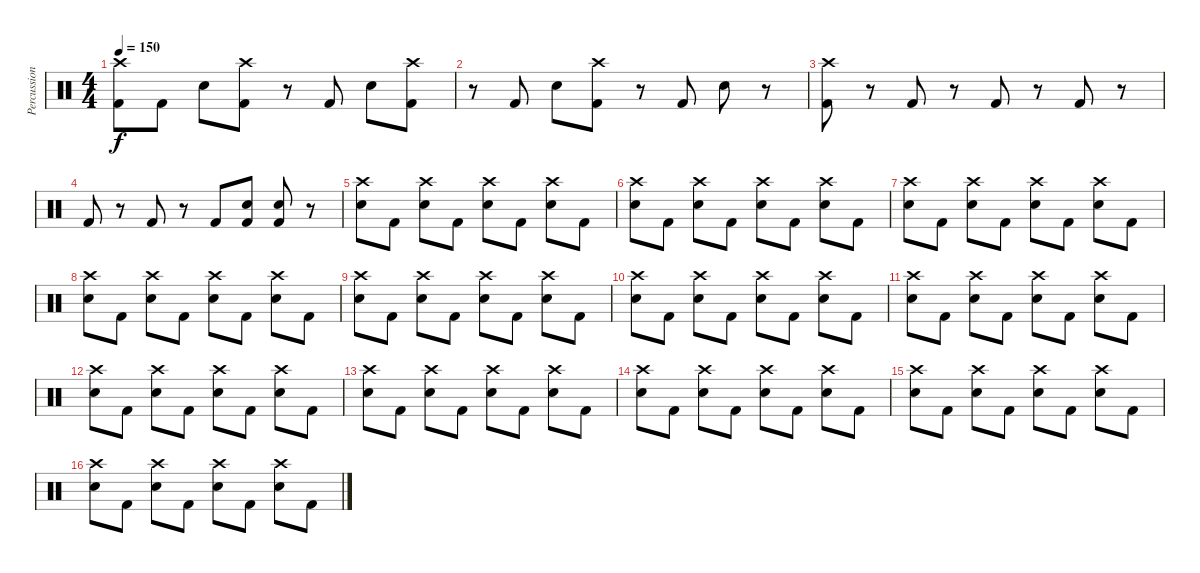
\track ("Percussion" "Percussion") {instrument percussion}
\staff {score}
\articulation defaults
\ts (4 4)
\tempo 150
\clef neutral
\ks c
("Crash high (hit)" "Kick (hit) 2").8{dy f} "Kick (hit) 2".8 "Electric Snare (hit)".8 ("Crash high (hit)" "Kick (hit) 2").8 r.8 "Kick (hit) 2".8 "Electric Snare (hit)".8 ("Crash high (hit)" "Kick (hit) 2").8 |
r.8 "Kick (hit) 2".8 "Electric Snare (hit)".8 ("Crash high (hit)" "Kick (hit) 2").8 r.8 "Kick (hit) 2".8 "Electric Snare (hit)".8 r.8 |
("Crash high (hit)" "Kick (hit) 2").8 r.8 "Kick (hit) 2".8 r.8 "Kick (hit) 2".8 r.8 "Kick (hit) 2".8 r.8 |
"Kick (hit) 2".8 r.8 "Kick (hit) 2".8 r.8 "Kick (hit) 2".8 ("Kick (hit) 2" "Electric Snare (hit)").8 ("Kick (hit) 2" "Electric Snare (hit)").8 r.8 |
("Crash high (hit)" "Snare (hit) 2").8 "Kick (hit) 2".8 ("Crash high (hit)" "Snare (hit) 2").8 "Kick (hit) 2".8 ("Crash high (hit)" "Snare (hit) 2").8 "Kick (hit) 2".8 ("Crash high (hit)" "Snare (hit) 2").8 "Kick (hit) 2".8 |
("Crash high (hit)" "Snare (hit) 2").8 "Kick (hit) 2".8 ("Crash high (hit)" "Snare (hit) 2").8 "Kick (hit) 2".8 ("Crash high (hit)" "Snare (hit) 2").8 "Kick (hit) 2".8 ("Crash high (hit)" "Snare (hit) 2").8 "Kick (hit) 2".8 |
("Crash high (hit)" "Snare (hit) 2").8 "Kick (hit) 2".8 ("Crash high (hit)" "Snare (hit) 2").8 "Kick (hit) 2".8 ("Crash high (hit)" "Snare (hit) 2").8 "Kick (hit) 2".8 ("Crash high (hit)" "Snare (hit) 2").8 "Kick (hit) 2".8 |
("Crash high (hit)" "Snare (hit) 2").8 "Kick (hit) 2".8 ("Crash high (hit)" "Snare (hit) 2").8 "Kick (hit) 2".8 ("Crash high (hit)" "Snare (hit) 2").8 "Kick (hit) 2".8 ("Crash high (hit)" "Snare (hit) 2").8 "Kick (hit) 2".8 |
("Crash high (hit)" "Snare (hit) 2").8 "Kick (hit) 2".8 ("Crash high (hit)" "Snare (hit) 2").8 "Kick (hit) 2".8 ("Crash high (hit)" "Snare (hit) 2").8 "Kick (hit) 2".8 ("Crash high (hit)" "Snare (hit) 2").8 "Kick (hit) 2".8 |
("Crash high (hit)" "Snare (hit) 2").8 "Kick (hit) 2".8 ("Crash high (hit)" "Snare (hit) 2").8 "Kick (hit) 2".8 ("Crash high (hit)" "Snare (hit) 2").8 "Kick (hit) 2".8 ("Crash high (hit)" "Snare (hit) 2").8 "Kick (hit) 2".8 |
("Crash high (hit)" "Snare (hit) 2").8 "Kick (hit) 2".8 ("Crash high (hit)" "Snare (hit) 2").8 "Kick (hit) 2".8 ("Crash high (hit)" "Snare (hit) 2").8 "Kick (hit) 2".8 ("Crash high (hit)" "Snare (hit) 2").8 "Kick (hit) 2".8 |
("Crash high (hit)" "Snare (hit) 2").8 "Kick (hit) 2".8 ("Crash high (hit)" "Snare (hit) 2").8 "Kick (hit) 2".8 ("Crash high (hit)" "Snare (hit) 2").8 "Kick (hit) 2".8 ("Crash high (hit)" "Snare (hit) 2").8 "Kick (hit) 2".8 |
("Crash high (hit)" "Snare (hit) 2").8 "Kick (hit) 2".8 ("Crash high (hit)" "Snare (hit) 2").8 "Kick (hit) 2".8 ("Crash high (hit)" "Snare (hit) 2").8 "Kick (hit) 2".8 ("Crash high (hit)" "Snare (hit) 2").8 "Kick (hit) 2".8 |
("Crash high (hit)" "Snare (hit) 2").8 "Kick (hit) 2".8 ("Crash high (hit)" "Snare (hit) 2").8 "Kick (hit) 2".8 ("Crash high (hit)" "Snare (hit) 2").8 "Kick (hit) 2".8 ("Crash high (hit)" "Snare (hit) 2").8 "Kick (hit) 2".8 |
("Crash high (hit)" "Snare (hit) 2").8 "Kick (hit) 2".8 ("Crash high (hit)" "Snare (hit) 2").8 "Kick (hit) 2".8 ("Crash high (hit)" "Snare (hit) 2").8 "Kick (hit) 2".8 ("Crash high (hit)" "Snare (hit) 2").8 "Kick (hit) 2".8 |
("Crash high (hit)" "Snare (hit) 2").8 "Kick (hit) 2".8 ("Crash high (hit)" "Snare (hit) 2").8 "Kick (hit) 2".8 ("Crash high (hit)" "Snare (hit) 2").8 "Kick (hit) 2".8 ("Crash high (hit)" "Snare (hit) 2").8 "Kick (hit) 2".8
